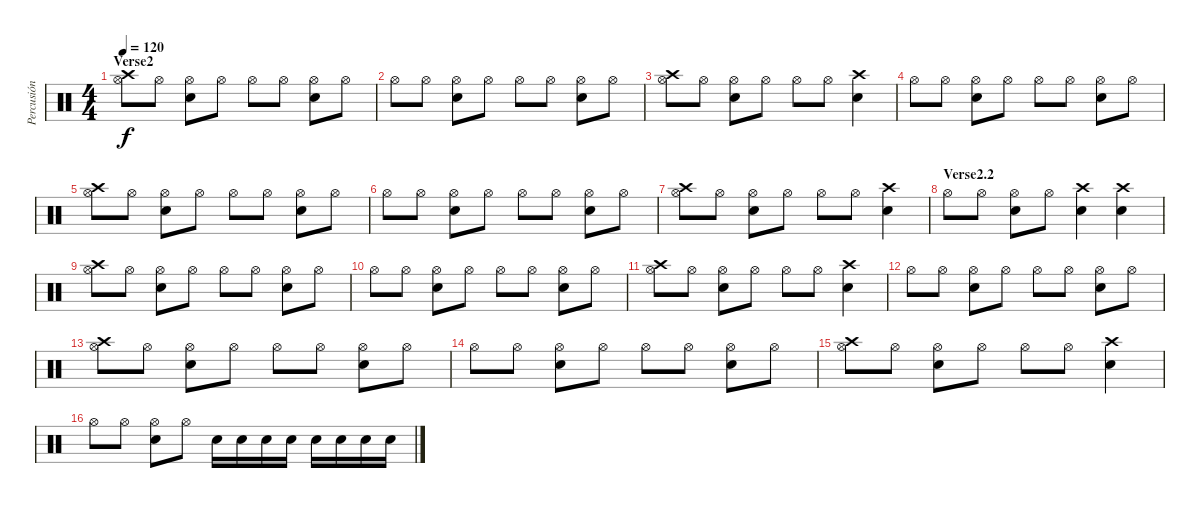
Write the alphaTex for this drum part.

\track ("Percusión" "Percusión") {instrument percussion}
\staff {score}
\articulation defaults
\ts (4 4)
\section ("" "Verse2")
\tempo 120
\clef neutral
\ks c
("Hi-Hat (open)" "Crash high (hit)").8{dy f} "Hi-Hat (open)".8 ("Hi-Hat (open)" "Snare (hit) 2").8 "Hi-Hat (open)".8 "Hi-Hat (open)".8 "Hi-Hat (open)".8 ("Hi-Hat (open)" "Snare (hit) 2").8 "Hi-Hat (open)".8 |
"Hi-Hat (open)".8 "Hi-Hat (open)".8 ("Hi-Hat (open)" "Snare (hit) 2").8 "Hi-Hat (open)".8 "Hi-Hat (open)".8 "Hi-Hat (open)".8 ("Hi-Hat (open)" "Snare (hit) 2").8 "Hi-Hat (open)".8 |
("Hi-Hat (open)" "Crash high (hit)").8 "Hi-Hat (open)".8 ("Hi-Hat (open)" "Snare (hit) 2").8 "Hi-Hat (open)".8 "Hi-Hat (open)".8 "Hi-Hat (open)".8 ("Crash high (hit)" "Snare (hit) 2").4 |
"Hi-Hat (open)".8 "Hi-Hat (open)".8 ("Hi-Hat (open)" "Snare (hit) 2").8 "Hi-Hat (open)".8 "Hi-Hat (open)".8 "Hi-Hat (open)".8 ("Hi-Hat (open)" "Snare (hit) 2").8 "Hi-Hat (open)".8 |
("Hi-Hat (open)" "Crash high (hit)").8 "Hi-Hat (open)".8 ("Hi-Hat (open)" "Snare (hit) 2").8 "Hi-Hat (open)".8 "Hi-Hat (open)".8 "Hi-Hat (open)".8 ("Hi-Hat (open)" "Snare (hit) 2").8 "Hi-Hat (open)".8 |
"Hi-Hat (open)".8 "Hi-Hat (open)".8 ("Hi-Hat (open)" "Snare (hit) 2").8 "Hi-Hat (open)".8 "Hi-Hat (open)".8 "Hi-Hat (open)".8 ("Hi-Hat (open)" "Snare (hit) 2").8 "Hi-Hat (open)".8 |
("Hi-Hat (open)" "Crash high (hit)").8 "Hi-Hat (open)".8 ("Hi-Hat (open)" "Snare (hit) 2").8 "Hi-Hat (open)".8 "Hi-Hat (open)".8 "Hi-Hat (open)".8 ("Crash high (hit)" "Snare (hit) 2").4 |
\section ("" "Verse2.2")
"Hi-Hat (open)".8 "Hi-Hat (open)".8 ("Hi-Hat (open)" "Snare (hit) 2").8 "Hi-Hat (open)".8 ("Snare (hit) 2" "Crash high (hit)").4 ("Snare (hit) 2" "Crash high (hit)").4 |
("Hi-Hat (open)" "Crash high (hit)").8 "Hi-Hat (open)".8 ("Hi-Hat (open)" "Snare (hit) 2").8 "Hi-Hat (open)".8 "Hi-Hat (open)".8 "Hi-Hat (open)".8 ("Hi-Hat (open)" "Snare (hit) 2").8 "Hi-Hat (open)".8 |
"Hi-Hat (open)".8 "Hi-Hat (open)".8 ("Hi-Hat (open)" "Snare (hit) 2").8 "Hi-Hat (open)".8 "Hi-Hat (open)".8 "Hi-Hat (open)".8 ("Hi-Hat (open)" "Snare (hit) 2").8 "Hi-Hat (open)".8 |
("Hi-Hat (open)" "Crash high (hit)").8 "Hi-Hat (open)".8 ("Hi-Hat (open)" "Snare (hit) 2").8 "Hi-Hat (open)".8 "Hi-Hat (open)".8 "Hi-Hat (open)".8 ("Crash high (hit)" "Snare (hit) 2").4 |
"Hi-Hat (open)".8 "Hi-Hat (open)".8 ("Hi-Hat (open)" "Snare (hit) 2").8 "Hi-Hat (open)".8 "Hi-Hat (open)".8 "Hi-Hat (open)".8 ("Hi-Hat (open)" "Snare (hit) 2").8 "Hi-Hat (open)".8 |
("Hi-Hat (open)" "Crash high (hit)").8 "Hi-Hat (open)".8 ("Hi-Hat (open)" "Snare (hit) 2").8 "Hi-Hat (open)".8 "Hi-Hat (open)".8 "Hi-Hat (open)".8 ("Hi-Hat (open)" "Snare (hit) 2").8 "Hi-Hat (open)".8 |
"Hi-Hat (open)".8 "Hi-Hat (open)".8 ("Hi-Hat (open)" "Snare (hit) 2").8 "Hi-Hat (open)".8 "Hi-Hat (open)".8 "Hi-Hat (open)".8 ("Hi-Hat (open)" "Snare (hit) 2").8 "Hi-Hat (open)".8 |
("Hi-Hat (open)" "Crash high (hit)").8 "Hi-Hat (open)".8 ("Hi-Hat (open)" "Snare (hit) 2").8 "Hi-Hat (open)".8 "Hi-Hat (open)".8 "Hi-Hat (open)".8 ("Crash high (hit)" "Snare (hit) 2").4 |
"Hi-Hat (open)".8 "Hi-Hat (open)".8 ("Hi-Hat (open)" "Snare (hit) 2").8 "Hi-Hat (open)".8 "Snare (hit) 2".16 "Snare (hit) 2".16 "Snare (hit) 2".16 "Snare (hit) 2".16 "Snare (hit) 2".16 "Snare (hit) 2".16 "Snare (hit) 2".16 "Snare (hit) 2".16
